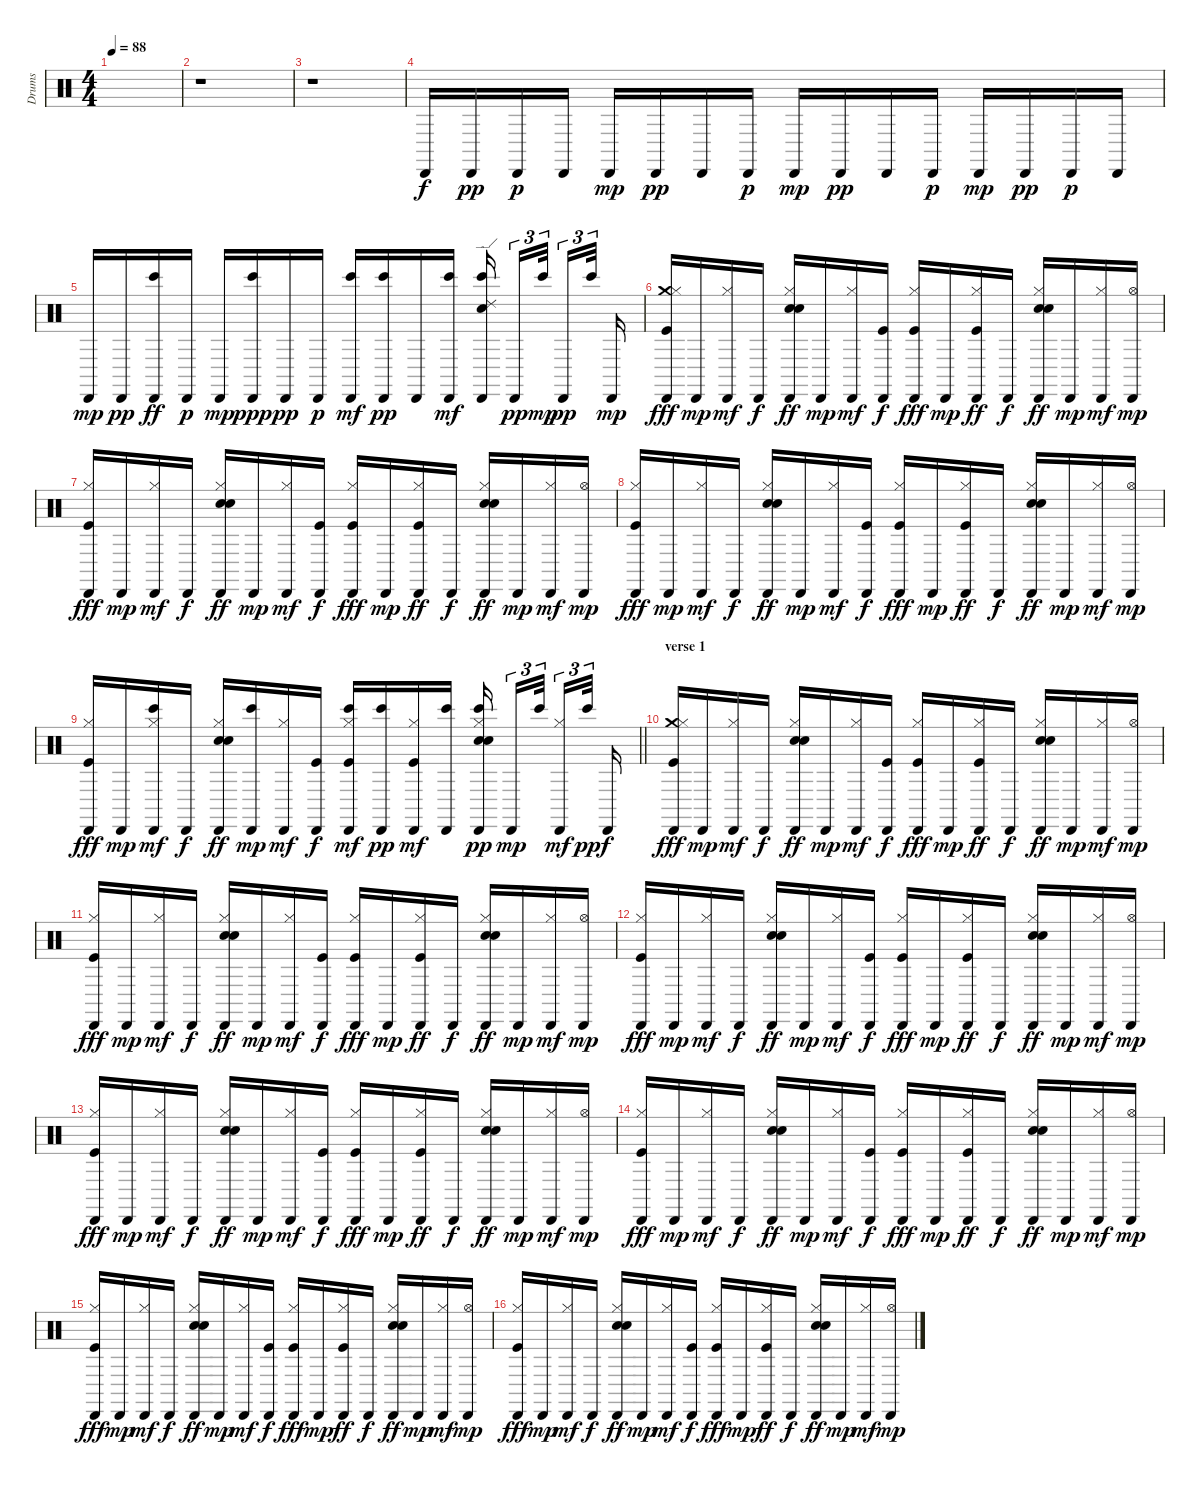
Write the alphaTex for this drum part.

\track ("Drums" "Drums") {instrument percussion}
\staff {score}
\articulation defaults
\ts (4 4)
\tempo 88
\clef neutral
\ks c
|
r.1 |
r.1 |
"Cabasa (hit)".16 "Cabasa (hit)".16{dy pp} "Cabasa (hit)".16{dy p} "Cabasa (hit)".16 "Cabasa (hit)".16{dy mp} "Cabasa (hit)".16{dy pp} "Cabasa (hit)".16 "Cabasa (hit)".16{dy p} "Cabasa (hit)".16{dy mp} "Cabasa (hit)".16{dy pp} "Cabasa (hit)".16 "Cabasa (hit)".16{dy p} "Cabasa (hit)".16{dy mp} "Cabasa (hit)".16{dy pp} "Cabasa (hit)".16{dy p} "Cabasa (hit)".16 |
"Cabasa (hit)".16{dy mp} "Cabasa (hit)".16{dy pp} ("Cabasa (hit)" "Bongo High (hit)").16{dy ff} "Cabasa (hit)".16{dy p} "Cabasa (hit)".16{dy mp} ("Cabasa (hit)" "Bongo High (hit)").16{dy ppp} "Cabasa (hit)".16{dy pp} "Cabasa (hit)".16{dy p} ("Cabasa (hit)" "Bongo High (hit)").16{dy mf} ("Cabasa (hit)" "Bongo High (hit)").16{dy pp} "Cabasa (hit)".16 ("Cabasa (hit)" "Bongo High (hit)").16{dy mf} ("Cabasa (hit)" "Electric Snare (hit)" "Ride (edge) 2" "Bongo High (hit)").16 "Cabasa (hit)".16{tu (3 2) dy pp} "Bongo High (hit)".32{tu (3 2) dy mp} "Cabasa (hit)".16{tu (3 2) dy pp} "Bongo High (hit)".32{tu (3 2)} "Cabasa (hit)".16{dy mp} |
("Cabasa (hit)" "Crash medium (hit)" "Hi-Hat (closed)" "Kick (hit)").16{dy fff} "Cabasa (hit)".16{dy mp} ("Cabasa (hit)" "Hi-Hat (closed)").16{dy mf} "Cabasa (hit)".16{dy f} ("Cabasa (hit)" "Electric Snare (hit)" "Snare (hit) 2" "Hi-Hat (closed)").16{dy ff} "Cabasa (hit)".16{dy mp} ("Cabasa (hit)" "Hi-Hat (closed)").16{dy mf} ("Cabasa (hit)" "Kick (hit)").16{dy f} ("Cabasa (hit)" "Hi-Hat (closed)" "Kick (hit)").16{dy fff} "Cabasa (hit)".16{dy mp} ("Cabasa (hit)" "Hi-Hat (closed)" "Kick (hit)").16{dy ff} "Cabasa (hit)".16{dy f} ("Cabasa (hit)" "Electric Snare (hit)" "Snare (hit) 2" "Hi-Hat (closed)").16{dy ff} "Cabasa (hit)".16{dy mp} ("Cabasa (hit)" "Hi-Hat (closed)").16{dy mf} ("Cabasa (hit)" "Hi-Hat (open)").16{dy mp} |
("Cabasa (hit)" "Hi-Hat (closed)" "Kick (hit)").16{dy fff} "Cabasa (hit)".16{dy mp} ("Cabasa (hit)" "Hi-Hat (closed)").16{dy mf} "Cabasa (hit)".16{dy f} ("Cabasa (hit)" "Electric Snare (hit)" "Snare (hit) 2" "Hi-Hat (closed)").16{dy ff} "Cabasa (hit)".16{dy mp} ("Cabasa (hit)" "Hi-Hat (closed)").16{dy mf} ("Cabasa (hit)" "Kick (hit)").16{dy f} ("Cabasa (hit)" "Hi-Hat (closed)" "Kick (hit)").16{dy fff} "Cabasa (hit)".16{dy mp} ("Cabasa (hit)" "Hi-Hat (closed)" "Kick (hit)").16{dy ff} "Cabasa (hit)".16{dy f} ("Cabasa (hit)" "Electric Snare (hit)" "Snare (hit) 2" "Hi-Hat (closed)").16{dy ff} "Cabasa (hit)".16{dy mp} ("Cabasa (hit)" "Hi-Hat (closed)").16{dy mf} ("Cabasa (hit)" "Hi-Hat (open)").16{dy mp} |
("Cabasa (hit)" "Hi-Hat (closed)" "Kick (hit)").16{dy fff} "Cabasa (hit)".16{dy mp} ("Cabasa (hit)" "Hi-Hat (closed)").16{dy mf} "Cabasa (hit)".16{dy f} ("Cabasa (hit)" "Electric Snare (hit)" "Snare (hit) 2" "Hi-Hat (closed)").16{dy ff} "Cabasa (hit)".16{dy mp} ("Cabasa (hit)" "Hi-Hat (closed)").16{dy mf} ("Cabasa (hit)" "Kick (hit)").16{dy f} ("Cabasa (hit)" "Hi-Hat (closed)" "Kick (hit)").16{dy fff} "Cabasa (hit)".16{dy mp} ("Cabasa (hit)" "Hi-Hat (closed)" "Kick (hit)").16{dy ff} "Cabasa (hit)".16{dy f} ("Cabasa (hit)" "Electric Snare (hit)" "Snare (hit) 2" "Hi-Hat (closed)").16{dy ff} "Cabasa (hit)".16{dy mp} ("Cabasa (hit)" "Hi-Hat (closed)").16{dy mf} ("Cabasa (hit)" "Hi-Hat (open)").16{dy mp} |
\barLineRight lightlight
("Kick (hit)" "Cabasa (hit)" "Hi-Hat (closed)").16{dy fff} "Cabasa (hit)".16{dy mp} ("Bongo High (hit)" "Cabasa (hit)" "Hi-Hat (closed)").16{dy mf} "Cabasa (hit)".16{dy f} ("Electric Snare (hit)" "Cabasa (hit)" "Snare (hit) 2" "Hi-Hat (closed)").16{dy ff} ("Cabasa (hit)" "Bongo High (hit)").16{dy mp} ("Cabasa (hit)" "Hi-Hat (closed)").16{dy mf} ("Kick (hit)" "Cabasa (hit)").16{dy f} ("Kick (hit)" "Cabasa (hit)" "Hi-Hat (closed)" "Bongo High (hit)").16{dy mf} ("Cabasa (hit)" "Bongo High (hit)").16{dy pp} ("Kick (hit)" "Cabasa (hit)" "Hi-Hat (closed)").16{dy mf} ("Cabasa (hit)" "Bongo High (hit)").16 ("Electric Snare (hit)" "Snare (hit) 2" "Cabasa (hit)" "Hi-Hat (closed)" "Bongo High (hit)").16{dy pp} "Cabasa (hit)".16{tu (3 2) dy mp} "Bongo High (hit)".32{tu (3 2)} ("Hi-Hat (closed)" "Cabasa (hit)").16{tu (3 2) dy mf} "Bongo High (hit)".32{tu (3 2) dy pp} "Cabasa (hit)".16{dy f} |
\section ("" "verse 1")
("Cabasa (hit)" "Crash medium (hit)" "Hi-Hat (closed)" "Kick (hit)").16{dy fff} "Cabasa (hit)".16{dy mp} ("Cabasa (hit)" "Hi-Hat (closed)").16{dy mf} "Cabasa (hit)".16{dy f} ("Cabasa (hit)" "Electric Snare (hit)" "Snare (hit) 2" "Hi-Hat (closed)").16{dy ff} "Cabasa (hit)".16{dy mp} ("Cabasa (hit)" "Hi-Hat (closed)").16{dy mf} ("Cabasa (hit)" "Kick (hit)").16{dy f} ("Cabasa (hit)" "Hi-Hat (closed)" "Kick (hit)").16{dy fff} "Cabasa (hit)".16{dy mp} ("Cabasa (hit)" "Hi-Hat (closed)" "Kick (hit)").16{dy ff} "Cabasa (hit)".16{dy f} ("Cabasa (hit)" "Electric Snare (hit)" "Snare (hit) 2" "Hi-Hat (closed)").16{dy ff} "Cabasa (hit)".16{dy mp} ("Cabasa (hit)" "Hi-Hat (closed)").16{dy mf} ("Cabasa (hit)" "Hi-Hat (open)").16{dy mp} |
("Cabasa (hit)" "Hi-Hat (closed)" "Kick (hit)").16{dy fff} "Cabasa (hit)".16{dy mp} ("Cabasa (hit)" "Hi-Hat (closed)").16{dy mf} "Cabasa (hit)".16{dy f} ("Cabasa (hit)" "Electric Snare (hit)" "Snare (hit) 2" "Hi-Hat (closed)").16{dy ff} "Cabasa (hit)".16{dy mp} ("Cabasa (hit)" "Hi-Hat (closed)").16{dy mf} ("Cabasa (hit)" "Kick (hit)").16{dy f} ("Cabasa (hit)" "Hi-Hat (closed)" "Kick (hit)").16{dy fff} "Cabasa (hit)".16{dy mp} ("Cabasa (hit)" "Hi-Hat (closed)" "Kick (hit)").16{dy ff} "Cabasa (hit)".16{dy f} ("Cabasa (hit)" "Electric Snare (hit)" "Snare (hit) 2" "Hi-Hat (closed)").16{dy ff} "Cabasa (hit)".16{dy mp} ("Cabasa (hit)" "Hi-Hat (closed)").16{dy mf} ("Cabasa (hit)" "Hi-Hat (open)").16{dy mp} |
("Cabasa (hit)" "Hi-Hat (closed)" "Kick (hit)").16{dy fff} "Cabasa (hit)".16{dy mp} ("Cabasa (hit)" "Hi-Hat (closed)").16{dy mf} "Cabasa (hit)".16{dy f} ("Cabasa (hit)" "Electric Snare (hit)" "Snare (hit) 2" "Hi-Hat (closed)").16{dy ff} "Cabasa (hit)".16{dy mp} ("Cabasa (hit)" "Hi-Hat (closed)").16{dy mf} ("Cabasa (hit)" "Kick (hit)").16{dy f} ("Cabasa (hit)" "Hi-Hat (closed)" "Kick (hit)").16{dy fff} "Cabasa (hit)".16{dy mp} ("Cabasa (hit)" "Hi-Hat (closed)" "Kick (hit)").16{dy ff} "Cabasa (hit)".16{dy f} ("Cabasa (hit)" "Electric Snare (hit)" "Snare (hit) 2" "Hi-Hat (closed)").16{dy ff} "Cabasa (hit)".16{dy mp} ("Cabasa (hit)" "Hi-Hat (closed)").16{dy mf} ("Cabasa (hit)" "Hi-Hat (open)").16{dy mp} |
("Cabasa (hit)" "Hi-Hat (closed)" "Kick (hit)").16{dy fff} "Cabasa (hit)".16{dy mp} ("Cabasa (hit)" "Hi-Hat (closed)").16{dy mf} "Cabasa (hit)".16{dy f} ("Cabasa (hit)" "Electric Snare (hit)" "Snare (hit) 2" "Hi-Hat (closed)").16{dy ff} "Cabasa (hit)".16{dy mp} ("Cabasa (hit)" "Hi-Hat (closed)").16{dy mf} ("Cabasa (hit)" "Kick (hit)").16{dy f} ("Cabasa (hit)" "Hi-Hat (closed)" "Kick (hit)").16{dy fff} "Cabasa (hit)".16{dy mp} ("Cabasa (hit)" "Hi-Hat (closed)" "Kick (hit)").16{dy ff} "Cabasa (hit)".16{dy f} ("Cabasa (hit)" "Electric Snare (hit)" "Snare (hit) 2" "Hi-Hat (closed)").16{dy ff} "Cabasa (hit)".16{dy mp} ("Cabasa (hit)" "Hi-Hat (closed)").16{dy mf} ("Cabasa (hit)" "Hi-Hat (open)").16{dy mp} |
("Cabasa (hit)" "Hi-Hat (closed)" "Kick (hit)").16{dy fff} "Cabasa (hit)".16{dy mp} ("Cabasa (hit)" "Hi-Hat (closed)").16{dy mf} "Cabasa (hit)".16{dy f} ("Cabasa (hit)" "Electric Snare (hit)" "Snare (hit) 2" "Hi-Hat (closed)").16{dy ff} "Cabasa (hit)".16{dy mp} ("Cabasa (hit)" "Hi-Hat (closed)").16{dy mf} ("Cabasa (hit)" "Kick (hit)").16{dy f} ("Cabasa (hit)" "Hi-Hat (closed)" "Kick (hit)").16{dy fff} "Cabasa (hit)".16{dy mp} ("Cabasa (hit)" "Hi-Hat (closed)" "Kick (hit)").16{dy ff} "Cabasa (hit)".16{dy f} ("Cabasa (hit)" "Electric Snare (hit)" "Snare (hit) 2" "Hi-Hat (closed)").16{dy ff} "Cabasa (hit)".16{dy mp} ("Cabasa (hit)" "Hi-Hat (closed)").16{dy mf} ("Cabasa (hit)" "Hi-Hat (open)").16{dy mp} |
("Cabasa (hit)" "Hi-Hat (closed)" "Kick (hit)").16{dy fff} "Cabasa (hit)".16{dy mp} ("Cabasa (hit)" "Hi-Hat (closed)").16{dy mf} "Cabasa (hit)".16{dy f} ("Cabasa (hit)" "Electric Snare (hit)" "Snare (hit) 2" "Hi-Hat (closed)").16{dy ff} "Cabasa (hit)".16{dy mp} ("Cabasa (hit)" "Hi-Hat (closed)").16{dy mf} ("Cabasa (hit)" "Kick (hit)").16{dy f} ("Cabasa (hit)" "Hi-Hat (closed)" "Kick (hit)").16{dy fff} "Cabasa (hit)".16{dy mp} ("Cabasa (hit)" "Hi-Hat (closed)" "Kick (hit)").16{dy ff} "Cabasa (hit)".16{dy f} ("Cabasa (hit)" "Electric Snare (hit)" "Snare (hit) 2" "Hi-Hat (closed)").16{dy ff} "Cabasa (hit)".16{dy mp} ("Cabasa (hit)" "Hi-Hat (closed)").16{dy mf} ("Cabasa (hit)" "Hi-Hat (open)").16{dy mp} |
("Cabasa (hit)" "Hi-Hat (closed)" "Kick (hit)").16{dy fff} "Cabasa (hit)".16{dy mp} ("Cabasa (hit)" "Hi-Hat (closed)").16{dy mf} "Cabasa (hit)".16{dy f} ("Cabasa (hit)" "Electric Snare (hit)" "Snare (hit) 2" "Hi-Hat (closed)").16{dy ff} "Cabasa (hit)".16{dy mp} ("Cabasa (hit)" "Hi-Hat (closed)").16{dy mf} ("Cabasa (hit)" "Kick (hit)").16{dy f} ("Cabasa (hit)" "Hi-Hat (closed)" "Kick (hit)").16{dy fff} "Cabasa (hit)".16{dy mp} ("Cabasa (hit)" "Hi-Hat (closed)" "Kick (hit)").16{dy ff} "Cabasa (hit)".16{dy f} ("Cabasa (hit)" "Electric Snare (hit)" "Snare (hit) 2" "Hi-Hat (closed)").16{dy ff} "Cabasa (hit)".16{dy mp} ("Cabasa (hit)" "Hi-Hat (closed)").16{dy mf} ("Cabasa (hit)" "Hi-Hat (open)").16{dy mp}
